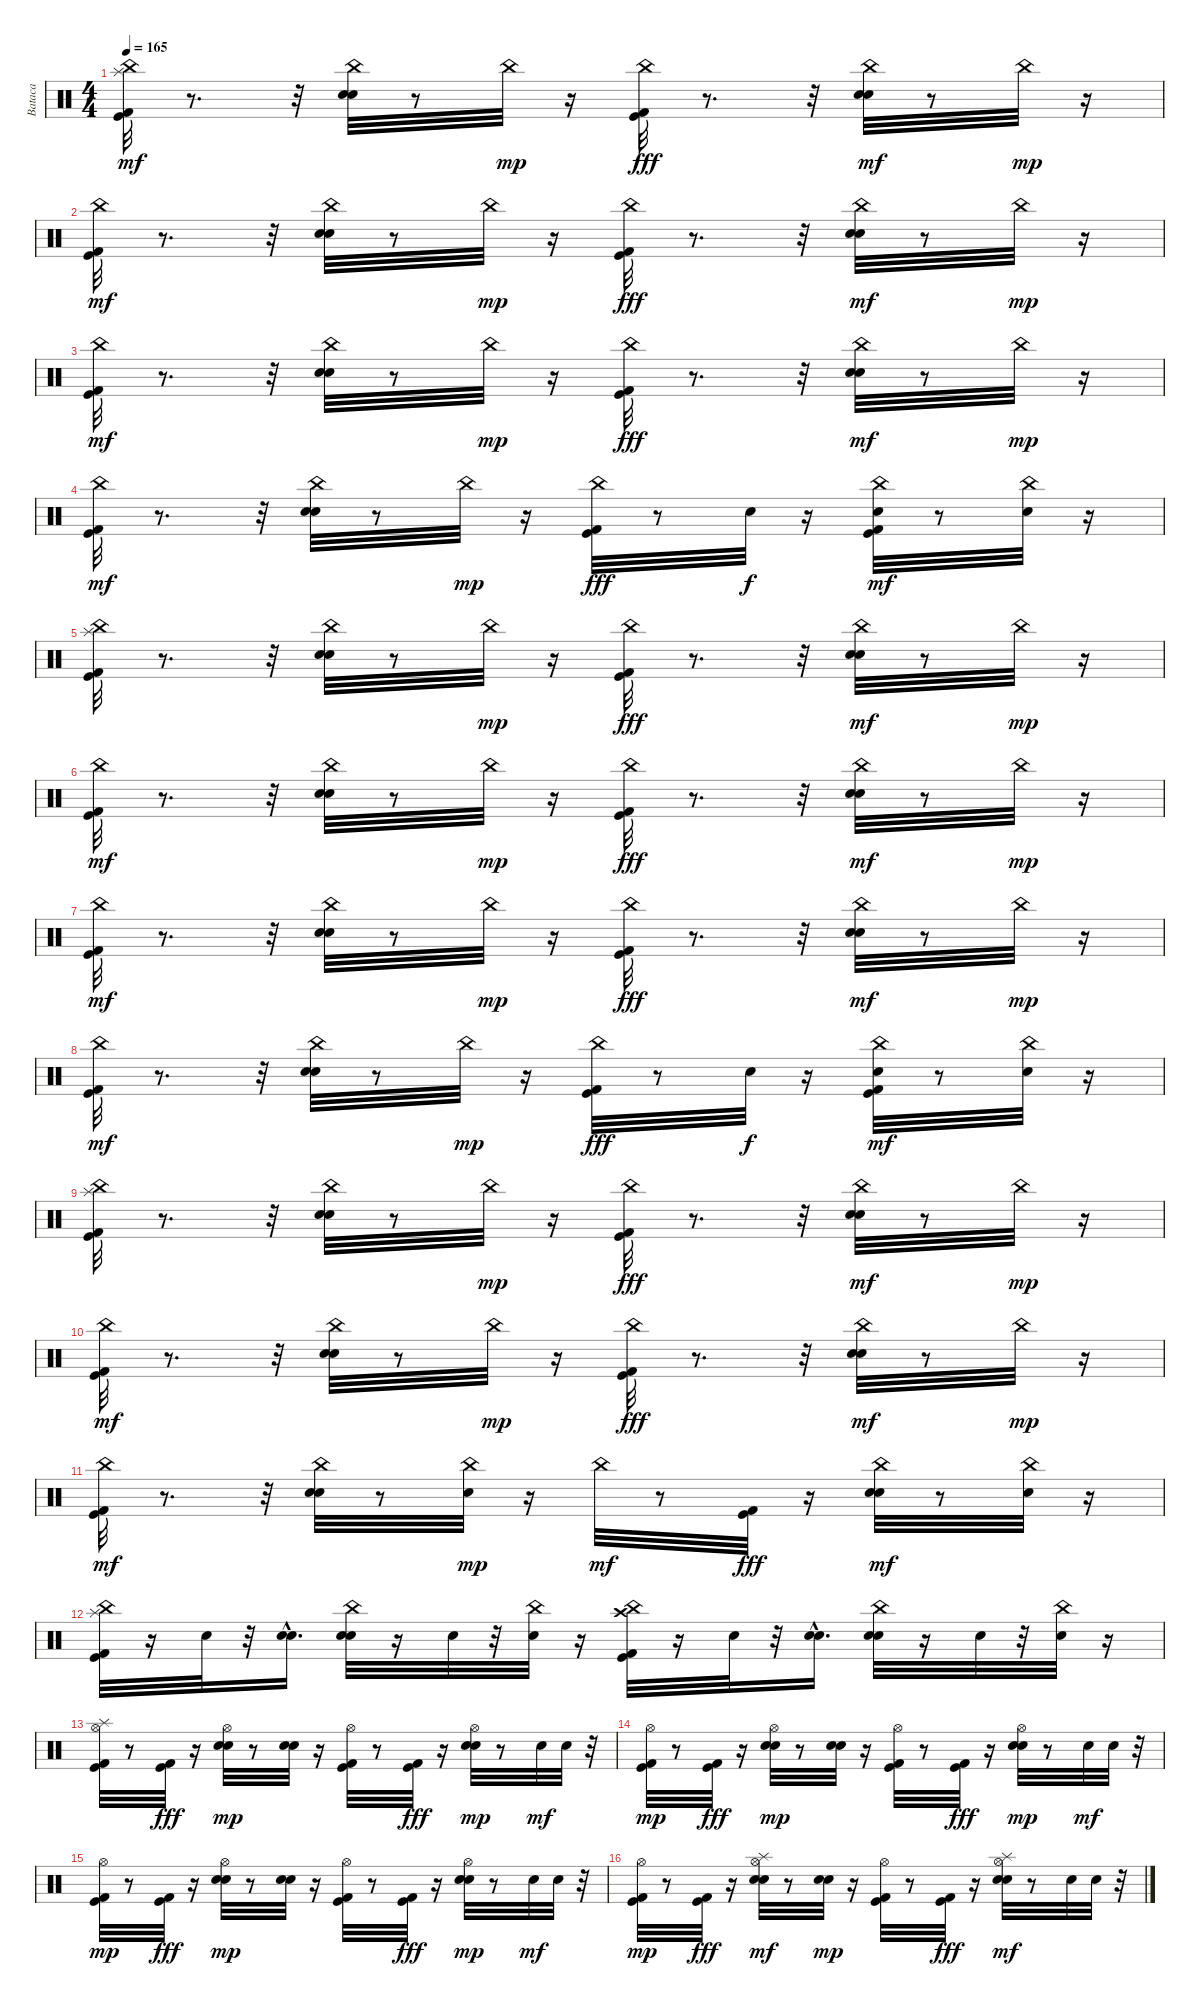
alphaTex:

\track ("Bataca" "Bataca") {instrument percussion}
\staff {score}
\articulation defaults
\ts (4 4)
\tempo 165
\clef neutral
\ks c
("Kick (hit) 2" "Kick (hit)" "Splash (hit)" "China (hit)").32{dy mf} r.8{d} r.32 ("Snare (hit) 2" "China (hit)" "Hand Clap (hit)").32 r.8 "China (hit)".32{dy mp} r.16 ("China (hit)" "Kick (hit) 2" "Kick (hit)").32{dy fff} r.8{d} r.32 ("Snare (hit) 2" "China (hit)" "Hand Clap (hit)").32{dy mf} r.8 "China (hit)".32{dy mp} r.16 |
("Kick (hit) 2" "Kick (hit)" "China (hit)").32{dy mf} r.8{d} r.32 ("Snare (hit) 2" "China (hit)" "Hand Clap (hit)").32 r.8 "China (hit)".32{dy mp} r.16 ("China (hit)" "Kick (hit) 2" "Kick (hit)").32{dy fff} r.8{d} r.32 ("Snare (hit) 2" "China (hit)" "Hand Clap (hit)").32{dy mf} r.8 "China (hit)".32{dy mp} r.16 |
("Kick (hit) 2" "Kick (hit)" "China (hit)").32{dy mf} r.8{d} r.32 ("Snare (hit) 2" "China (hit)" "Hand Clap (hit)").32 r.8 "China (hit)".32{dy mp} r.16 ("China (hit)" "Kick (hit) 2" "Kick (hit)").32{dy fff} r.8{d} r.32 ("Snare (hit) 2" "China (hit)" "Hand Clap (hit)").32{dy mf} r.8 "China (hit)".32{dy mp} r.16 |
("Kick (hit) 2" "Kick (hit)" "China (hit)").32{dy mf} r.8{d} r.32 ("Snare (hit) 2" "China (hit)" "Hand Clap (hit)").32 r.8 "China (hit)".32{dy mp} r.16 ("China (hit)" "Kick (hit) 2" "Kick (hit)").32{dy fff} r.8 "Snare (hit) 2".32{dy f} r.16 ("China (hit)" "Kick (hit) 2" "Kick (hit)" "Hand Clap (hit)").32{dy mf} r.8 ("China (hit)" "Snare (hit) 2").32 r.16 |
("Kick (hit) 2" "Kick (hit)" "Splash (hit)" "China (hit)").32 r.8{d} r.32 ("Snare (hit) 2" "China (hit)" "Hand Clap (hit)").32 r.8 "China (hit)".32{dy mp} r.16 ("China (hit)" "Kick (hit) 2" "Kick (hit)").32{dy fff} r.8{d} r.32 ("Snare (hit) 2" "China (hit)" "Hand Clap (hit)").32{dy mf} r.8 "China (hit)".32{dy mp} r.16 |
("Kick (hit) 2" "Kick (hit)" "China (hit)").32{dy mf} r.8{d} r.32 ("Snare (hit) 2" "China (hit)" "Hand Clap (hit)").32 r.8 "China (hit)".32{dy mp} r.16 ("China (hit)" "Kick (hit) 2" "Kick (hit)").32{dy fff} r.8{d} r.32 ("Snare (hit) 2" "China (hit)" "Hand Clap (hit)").32{dy mf} r.8 "China (hit)".32{dy mp} r.16 |
("Kick (hit) 2" "Kick (hit)" "China (hit)").32{dy mf} r.8{d} r.32 ("Snare (hit) 2" "China (hit)" "Hand Clap (hit)").32 r.8 "China (hit)".32{dy mp} r.16 ("China (hit)" "Kick (hit) 2" "Kick (hit)").32{dy fff} r.8{d} r.32 ("Snare (hit) 2" "China (hit)" "Hand Clap (hit)").32{dy mf} r.8 "China (hit)".32{dy mp} r.16 |
("Kick (hit) 2" "Kick (hit)" "China (hit)").32{dy mf} r.8{d} r.32 ("Snare (hit) 2" "China (hit)" "Hand Clap (hit)").32 r.8 "China (hit)".32{dy mp} r.16 ("China (hit)" "Kick (hit) 2" "Kick (hit)").32{dy fff} r.8 "Snare (hit) 2".32{dy f} r.16 ("China (hit)" "Kick (hit) 2" "Kick (hit)" "Hand Clap (hit)").32{dy mf} r.8 ("China (hit)" "Snare (hit) 2").32 r.16 |
("Kick (hit) 2" "Kick (hit)" "Splash (hit)" "China (hit)").32 r.8{d} r.32 ("Snare (hit) 2" "China (hit)" "Hand Clap (hit)").32 r.8 "China (hit)".32{dy mp} r.16 ("China (hit)" "Kick (hit) 2" "Kick (hit)").32{dy fff} r.8{d} r.32 ("Snare (hit) 2" "China (hit)" "Hand Clap (hit)").32{dy mf} r.8 "China (hit)".32{dy mp} r.16 |
("Kick (hit) 2" "Kick (hit)" "China (hit)").32{dy mf} r.8{d} r.32 ("Snare (hit) 2" "China (hit)" "Hand Clap (hit)").32 r.8 "China (hit)".32{dy mp} r.16 ("China (hit)" "Kick (hit) 2" "Kick (hit)").32{dy fff} r.8{d} r.32 ("Snare (hit) 2" "China (hit)" "Hand Clap (hit)").32{dy mf} r.8 "China (hit)".32{dy mp} r.16 |
("Kick (hit) 2" "Kick (hit)" "China (hit)").32{dy mf} r.8{d} r.32 ("Snare (hit) 2" "China (hit)" "Hand Clap (hit)").32 r.8 ("China (hit)" "Snare (hit) 2").32{dy mp} r.16 "China (hit)".32{dy mf} r.8 ("Kick (hit) 2" "Kick (hit)").32{dy fff} r.16 ("Snare (hit) 2" "China (hit)" "Hand Clap (hit)").32{dy mf} r.8 ("China (hit)" "Snare (hit) 2").32 r.16 |
("Kick (hit) 2" "Kick (hit)" "China (hit)" "Splash (hit)").32 r.16 "Snare (hit) 2".32 r.32 ("Snare (hit) 2"{hac} "Snare (hit) 2").16{d} ("Snare (hit) 2" "China (hit)" "Hand Clap (hit)").32 r.16 "Snare (hit) 2".32 r.32 ("China (hit)" "Snare (hit) 2").32 r.16 ("China (hit)" "Kick (hit) 2" "Kick (hit)" "Crash high (hit)").32 r.16 "Snare (hit) 2".32 r.32 ("Snare (hit) 2"{hac} "Snare (hit) 2").16{d} ("China (hit)" "Hand Clap (hit)" "Snare (hit) 2").32 r.16 "Snare (hit) 2".32 r.32 ("China (hit)" "Snare (hit) 2").32 r.16 |
("Kick (hit) 2" "Kick (hit)" "Hi-Hat (open)" "Splash (hit)").32 r.8 ("Kick (hit) 2" "Kick (hit)").32{dy fff} r.16 ("Snare (hit) 2" "Hand Clap (hit)" "Hi-Hat (open)").32{dy mp} r.8 ("Snare (hit) 2" "Hand Clap (hit)").32 r.16 ("Kick (hit) 2" "Kick (hit)" "Hi-Hat (open)").32 r.8 ("Kick (hit) 2" "Kick (hit)").32{dy fff} r.16 ("Snare (hit) 2" "Hand Clap (hit)" "Hi-Hat (open)").32{dy mp} r.8 "Snare (hit) 2".32{dy mf} "Hand Clap (hit)".32 r.32 |
("Kick (hit) 2" "Kick (hit)" "Hi-Hat (open)").32{dy mp} r.8 ("Kick (hit) 2" "Kick (hit)").32{dy fff} r.16 ("Snare (hit) 2" "Hand Clap (hit)" "Hi-Hat (open)").32{dy mp} r.8 ("Snare (hit) 2" "Hand Clap (hit)").32 r.16 ("Kick (hit) 2" "Kick (hit)" "Hi-Hat (open)").32 r.8 ("Kick (hit) 2" "Kick (hit)").32{dy fff} r.16 ("Snare (hit) 2" "Hand Clap (hit)" "Hi-Hat (open)").32{dy mp} r.8 "Snare (hit) 2".32{dy mf} "Hand Clap (hit)".32 r.32 |
("Kick (hit) 2" "Kick (hit)" "Hi-Hat (open)").32{dy mp} r.8 ("Kick (hit) 2" "Kick (hit)").32{dy fff} r.16 ("Snare (hit) 2" "Hand Clap (hit)" "Hi-Hat (open)").32{dy mp} r.8 ("Snare (hit) 2" "Hand Clap (hit)").32 r.16 ("Kick (hit) 2" "Kick (hit)" "Hi-Hat (open)").32 r.8 ("Kick (hit) 2" "Kick (hit)").32{dy fff} r.16 ("Snare (hit) 2" "Hand Clap (hit)" "Hi-Hat (open)").32{dy mp} r.8 "Snare (hit) 2".32{dy mf} "Hand Clap (hit)".32 r.32 |
("Kick (hit) 2" "Kick (hit)" "Hi-Hat (open)").32{dy mp} r.8 ("Kick (hit) 2" "Kick (hit)").32{dy fff} r.16 ("Snare (hit) 2" "Hand Clap (hit)" "Hi-Hat (open)" "Splash (hit)").32{dy mf} r.8 ("Snare (hit) 2" "Hand Clap (hit)").32{dy mp} r.16 ("Kick (hit) 2" "Kick (hit)" "Hi-Hat (open)").32 r.8 ("Kick (hit) 2" "Kick (hit)").32{dy fff} r.16 ("Snare (hit) 2" "Hand Clap (hit)" "Hi-Hat (open)" "Splash (hit)").32{dy mf} r.8 "Snare (hit) 2".32 "Hand Clap (hit)".32 r.32
